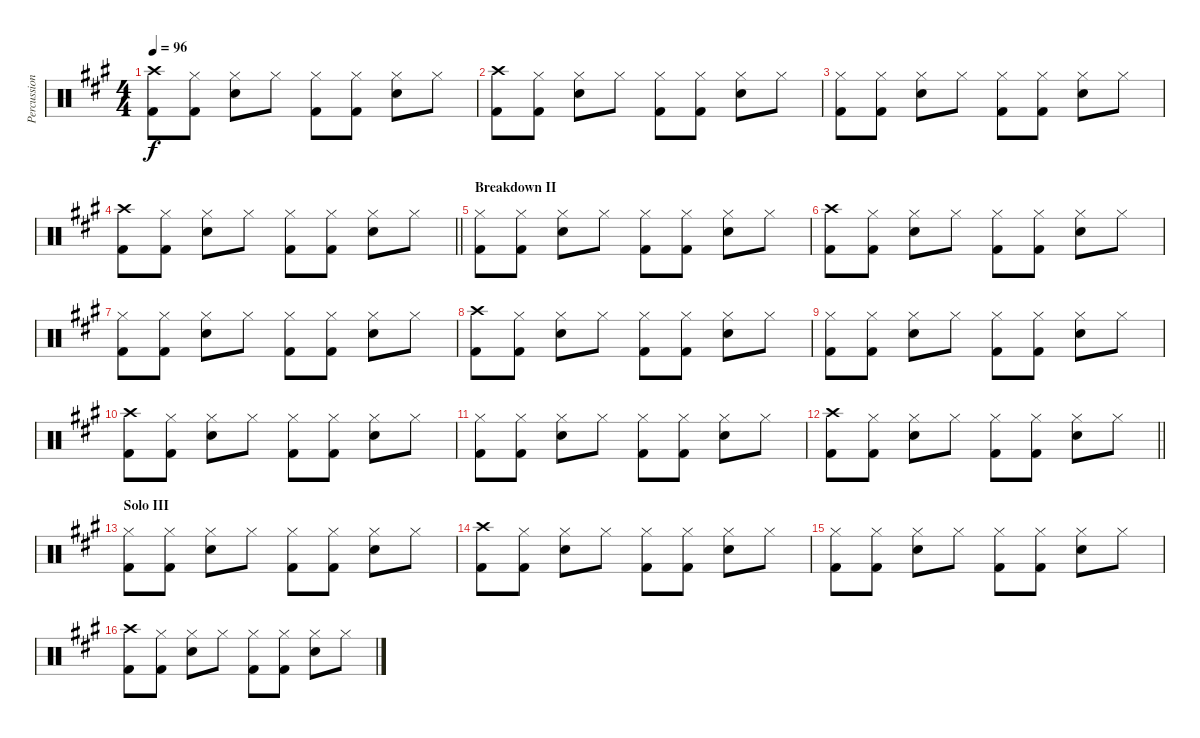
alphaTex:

\track ("Percussions" "Percussion") {instrument percussion}
\staff {score}
\articulation defaults
\ts (4 4)
\tempo 96
\clef neutral
\ks a
("Crash high (hit)" "Kick (hit) 2").8{dy f} ("Hi-Hat (closed)" "Kick (hit) 2").8 ("Hi-Hat (closed)" "Snare (hit) 2").8 "Hi-Hat (closed)".8 ("Hi-Hat (closed)" "Kick (hit) 2").8 ("Hi-Hat (closed)" "Kick (hit) 2").8 ("Hi-Hat (closed)" "Snare (hit) 2").8 "Hi-Hat (closed)".8 |
("Crash high (hit)" "Kick (hit) 2").8 ("Hi-Hat (closed)" "Kick (hit) 2").8 ("Hi-Hat (closed)" "Snare (hit) 2").8 "Hi-Hat (closed)".8 ("Hi-Hat (closed)" "Kick (hit) 2").8 ("Hi-Hat (closed)" "Kick (hit) 2").8 ("Hi-Hat (closed)" "Snare (hit) 2").8 "Hi-Hat (closed)".8 |
("Hi-Hat (closed)" "Kick (hit) 2").8 ("Hi-Hat (closed)" "Kick (hit) 2").8 ("Hi-Hat (closed)" "Snare (hit) 2").8 "Hi-Hat (closed)".8 ("Hi-Hat (closed)" "Kick (hit) 2").8 ("Hi-Hat (closed)" "Kick (hit) 2").8 ("Hi-Hat (closed)" "Snare (hit) 2").8 "Hi-Hat (closed)".8 |
\barLineRight lightlight
("Crash high (hit)" "Kick (hit) 2").8 ("Hi-Hat (closed)" "Kick (hit) 2").8 ("Hi-Hat (closed)" "Snare (hit) 2").8 "Hi-Hat (closed)".8 ("Hi-Hat (closed)" "Kick (hit) 2").8 ("Hi-Hat (closed)" "Kick (hit) 2").8 ("Hi-Hat (closed)" "Snare (hit) 2").8 "Hi-Hat (closed)".8 |
\section ("" "Breakdown II")
("Hi-Hat (closed)" "Kick (hit) 2").8 ("Hi-Hat (closed)" "Kick (hit) 2").8 ("Hi-Hat (closed)" "Snare (hit) 2").8 "Hi-Hat (closed)".8 ("Hi-Hat (closed)" "Kick (hit) 2").8 ("Hi-Hat (closed)" "Kick (hit) 2").8 ("Hi-Hat (closed)" "Snare (hit) 2").8 "Hi-Hat (closed)".8 |
("Crash high (hit)" "Kick (hit) 2").8 ("Hi-Hat (closed)" "Kick (hit) 2").8 ("Hi-Hat (closed)" "Snare (hit) 2").8 "Hi-Hat (closed)".8 ("Hi-Hat (closed)" "Kick (hit) 2").8 ("Hi-Hat (closed)" "Kick (hit) 2").8 ("Hi-Hat (closed)" "Snare (hit) 2").8 "Hi-Hat (closed)".8 |
("Hi-Hat (closed)" "Kick (hit) 2").8 ("Hi-Hat (closed)" "Kick (hit) 2").8 ("Hi-Hat (closed)" "Snare (hit) 2").8 "Hi-Hat (closed)".8 ("Hi-Hat (closed)" "Kick (hit) 2").8 ("Hi-Hat (closed)" "Kick (hit) 2").8 ("Hi-Hat (closed)" "Snare (hit) 2").8 "Hi-Hat (closed)".8 |
("Crash high (hit)" "Kick (hit) 2").8 ("Hi-Hat (closed)" "Kick (hit) 2").8 ("Hi-Hat (closed)" "Snare (hit) 2").8 "Hi-Hat (closed)".8 ("Hi-Hat (closed)" "Kick (hit) 2").8 ("Hi-Hat (closed)" "Kick (hit) 2").8 ("Hi-Hat (closed)" "Snare (hit) 2").8 "Hi-Hat (closed)".8 |
("Hi-Hat (closed)" "Kick (hit) 2").8 ("Hi-Hat (closed)" "Kick (hit) 2").8 ("Hi-Hat (closed)" "Snare (hit) 2").8 "Hi-Hat (closed)".8 ("Hi-Hat (closed)" "Kick (hit) 2").8 ("Hi-Hat (closed)" "Kick (hit) 2").8 ("Hi-Hat (closed)" "Snare (hit) 2").8 "Hi-Hat (closed)".8 |
("Crash high (hit)" "Kick (hit) 2").8 ("Hi-Hat (closed)" "Kick (hit) 2").8 ("Hi-Hat (closed)" "Snare (hit) 2").8 "Hi-Hat (closed)".8 ("Hi-Hat (closed)" "Kick (hit) 2").8 ("Hi-Hat (closed)" "Kick (hit) 2").8 ("Hi-Hat (closed)" "Snare (hit) 2").8 "Hi-Hat (closed)".8 |
("Hi-Hat (closed)" "Kick (hit) 2").8 ("Hi-Hat (closed)" "Kick (hit) 2").8 ("Hi-Hat (closed)" "Snare (hit) 2").8 "Hi-Hat (closed)".8 ("Hi-Hat (closed)" "Kick (hit) 2").8 ("Hi-Hat (closed)" "Kick (hit) 2").8 ("Hi-Hat (closed)" "Snare (hit) 2").8 "Hi-Hat (closed)".8 |
\barLineRight lightlight
("Crash high (hit)" "Kick (hit) 2").8 ("Hi-Hat (closed)" "Kick (hit) 2").8 ("Hi-Hat (closed)" "Snare (hit) 2").8 "Hi-Hat (closed)".8 ("Hi-Hat (closed)" "Kick (hit) 2").8 ("Hi-Hat (closed)" "Kick (hit) 2").8 ("Hi-Hat (closed)" "Snare (hit) 2").8 "Hi-Hat (closed)".8 |
\section ("" "Solo III")
("Hi-Hat (closed)" "Kick (hit) 2").8 ("Hi-Hat (closed)" "Kick (hit) 2").8 ("Hi-Hat (closed)" "Snare (hit) 2").8 "Hi-Hat (closed)".8 ("Hi-Hat (closed)" "Kick (hit) 2").8 ("Hi-Hat (closed)" "Kick (hit) 2").8 ("Hi-Hat (closed)" "Snare (hit) 2").8 "Hi-Hat (closed)".8 |
("Crash high (hit)" "Kick (hit) 2").8 ("Hi-Hat (closed)" "Kick (hit) 2").8 ("Hi-Hat (closed)" "Snare (hit) 2").8 "Hi-Hat (closed)".8 ("Hi-Hat (closed)" "Kick (hit) 2").8 ("Hi-Hat (closed)" "Kick (hit) 2").8 ("Hi-Hat (closed)" "Snare (hit) 2").8 "Hi-Hat (closed)".8 |
("Hi-Hat (closed)" "Kick (hit) 2").8 ("Hi-Hat (closed)" "Kick (hit) 2").8 ("Hi-Hat (closed)" "Snare (hit) 2").8 "Hi-Hat (closed)".8 ("Hi-Hat (closed)" "Kick (hit) 2").8 ("Hi-Hat (closed)" "Kick (hit) 2").8 ("Hi-Hat (closed)" "Snare (hit) 2").8 "Hi-Hat (closed)".8 |
("Crash high (hit)" "Kick (hit) 2").8 ("Hi-Hat (closed)" "Kick (hit) 2").8 ("Hi-Hat (closed)" "Snare (hit) 2").8 "Hi-Hat (closed)".8 ("Hi-Hat (closed)" "Kick (hit) 2").8 ("Hi-Hat (closed)" "Kick (hit) 2").8 ("Hi-Hat (closed)" "Snare (hit) 2").8 "Hi-Hat (closed)".8
